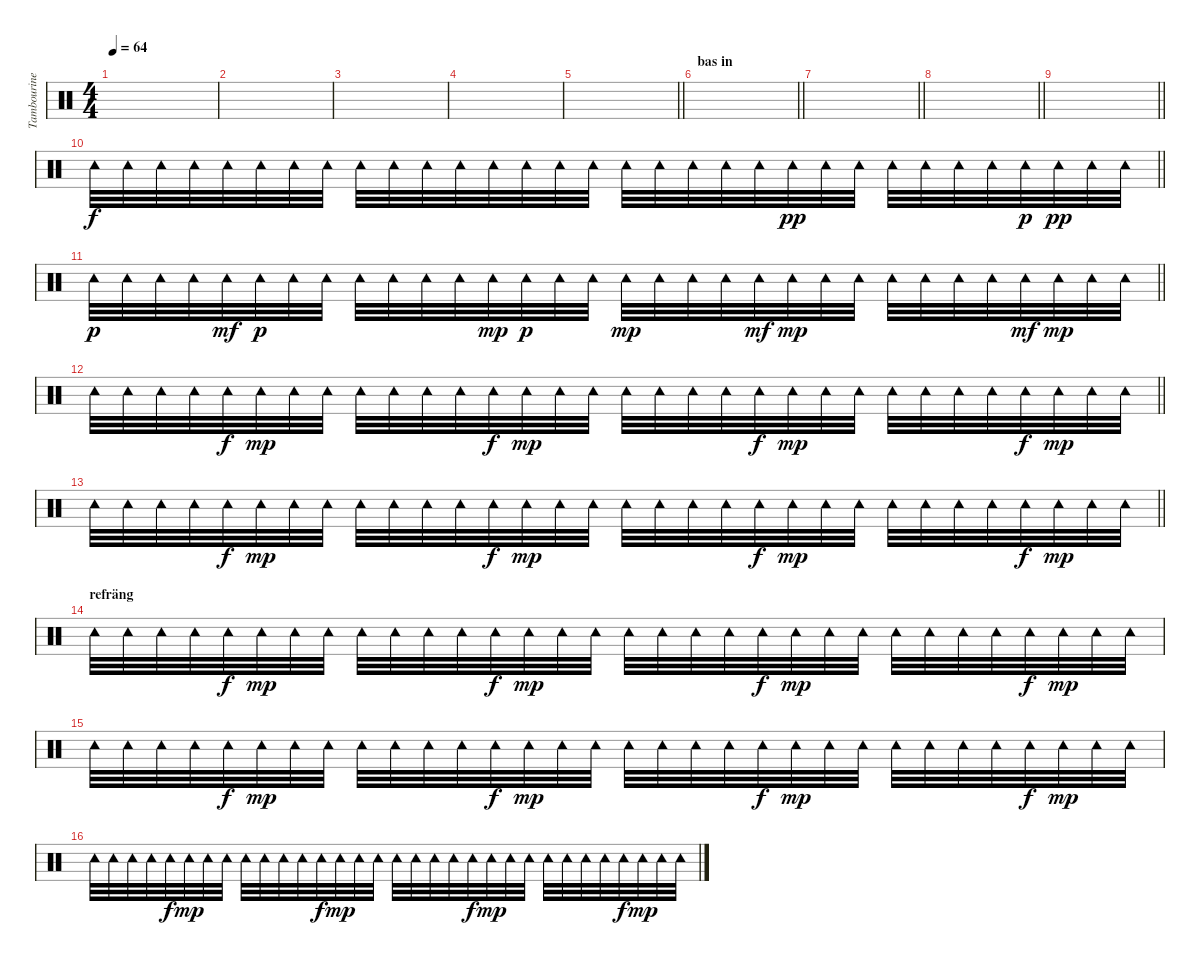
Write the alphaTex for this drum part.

\track ("Tambourine" "Tambourine") {instrument percussion}
\staff {score}
\articulation defaults
\ts (4 4)
\tempo 64
\clef neutral
\ks c
|
|
|
|
\barLineRight lightlight
|
\section ("" "bas in")
\barLineRight lightlight
|
\barLineRight lightlight
|
\barLineRight lightlight
|
\barLineRight lightlight
|
\barLineRight lightlight "Tambourine (hit)".32 "Tambourine (hit)".32 "Tambourine (hit)".32 "Tambourine (hit)".32 "Tambourine (hit)".32 "Tambourine (hit)".32 "Tambourine (hit)".32 "Tambourine (hit)".32 "Tambourine (hit)".32 "Tambourine (hit)".32 "Tambourine (hit)".32 "Tambourine (hit)".32 "Tambourine (hit)".32 "Tambourine (hit)".32 "Tambourine (hit)".32 "Tambourine (hit)".32 "Tambourine (hit)".32 "Tambourine (hit)".32 "Tambourine (hit)".32 "Tambourine (hit)".32 "Tambourine (hit)".32{dy f} "Tambourine (hit)".32{dy pp} "Tambourine (hit)".32 "Tambourine (hit)".32 "Tambourine (hit)".32 "Tambourine (hit)".32 "Tambourine (hit)".32 "Tambourine (hit)".32 "Tambourine (hit)".32{dy p} "Tambourine (hit)".32{dy pp} "Tambourine (hit)".32 "Tambourine (hit)".32
|
\barLineRight lightlight "Tambourine (hit)".32{dy p} "Tambourine (hit)".32 "Tambourine (hit)".32 "Tambourine (hit)".32 "Tambourine (hit)".32{dy mf} "Tambourine (hit)".32{dy p} "Tambourine (hit)".32 "Tambourine (hit)".32 "Tambourine (hit)".32 "Tambourine (hit)".32 "Tambourine (hit)".32 "Tambourine (hit)".32 "Tambourine (hit)".32{dy mp} "Tambourine (hit)".32{dy p} "Tambourine (hit)".32 "Tambourine (hit)".32 "Tambourine (hit)".32{dy mp} "Tambourine (hit)".32 "Tambourine (hit)".32 "Tambourine (hit)".32 "Tambourine (hit)".32{dy mf} "Tambourine (hit)".32{dy mp} "Tambourine (hit)".32 "Tambourine (hit)".32 "Tambourine (hit)".32 "Tambourine (hit)".32 "Tambourine (hit)".32 "Tambourine (hit)".32 "Tambourine (hit)".32{dy mf} "Tambourine (hit)".32{dy mp} "Tambourine (hit)".32 "Tambourine (hit)".32
|
\barLineRight lightlight "Tambourine (hit)".32 "Tambourine (hit)".32 "Tambourine (hit)".32 "Tambourine (hit)".32 "Tambourine (hit)".32{dy f} "Tambourine (hit)".32{dy mp} "Tambourine (hit)".32 "Tambourine (hit)".32 "Tambourine (hit)".32 "Tambourine (hit)".32 "Tambourine (hit)".32 "Tambourine (hit)".32 "Tambourine (hit)".32{dy f} "Tambourine (hit)".32{dy mp} "Tambourine (hit)".32 "Tambourine (hit)".32 "Tambourine (hit)".32 "Tambourine (hit)".32 "Tambourine (hit)".32 "Tambourine (hit)".32 "Tambourine (hit)".32{dy f} "Tambourine (hit)".32{dy mp} "Tambourine (hit)".32 "Tambourine (hit)".32 "Tambourine (hit)".32 "Tambourine (hit)".32 "Tambourine (hit)".32 "Tambourine (hit)".32 "Tambourine (hit)".32{dy f} "Tambourine (hit)".32{dy mp} "Tambourine (hit)".32 "Tambourine (hit)".32
|
\barLineRight lightlight "Tambourine (hit)".32 "Tambourine (hit)".32 "Tambourine (hit)".32 "Tambourine (hit)".32 "Tambourine (hit)".32{dy f} "Tambourine (hit)".32{dy mp} "Tambourine (hit)".32 "Tambourine (hit)".32 "Tambourine (hit)".32 "Tambourine (hit)".32 "Tambourine (hit)".32 "Tambourine (hit)".32 "Tambourine (hit)".32{dy f} "Tambourine (hit)".32{dy mp} "Tambourine (hit)".32 "Tambourine (hit)".32 "Tambourine (hit)".32 "Tambourine (hit)".32 "Tambourine (hit)".32 "Tambourine (hit)".32 "Tambourine (hit)".32{dy f} "Tambourine (hit)".32{dy mp} "Tambourine (hit)".32 "Tambourine (hit)".32 "Tambourine (hit)".32 "Tambourine (hit)".32 "Tambourine (hit)".32 "Tambourine (hit)".32 "Tambourine (hit)".32{dy f} "Tambourine (hit)".32{dy mp} "Tambourine (hit)".32 "Tambourine (hit)".32
|
\section ("" "refräng")
"Tambourine (hit)".32 "Tambourine (hit)".32 "Tambourine (hit)".32 "Tambourine (hit)".32 "Tambourine (hit)".32{dy f} "Tambourine (hit)".32{dy mp} "Tambourine (hit)".32 "Tambourine (hit)".32 "Tambourine (hit)".32 "Tambourine (hit)".32 "Tambourine (hit)".32 "Tambourine (hit)".32 "Tambourine (hit)".32{dy f} "Tambourine (hit)".32{dy mp} "Tambourine (hit)".32 "Tambourine (hit)".32 "Tambourine (hit)".32 "Tambourine (hit)".32 "Tambourine (hit)".32 "Tambourine (hit)".32 "Tambourine (hit)".32{dy f} "Tambourine (hit)".32{dy mp} "Tambourine (hit)".32 "Tambourine (hit)".32 "Tambourine (hit)".32 "Tambourine (hit)".32 "Tambourine (hit)".32 "Tambourine (hit)".32 "Tambourine (hit)".32{dy f} "Tambourine (hit)".32{dy mp} "Tambourine (hit)".32 "Tambourine (hit)".32 |
"Tambourine (hit)".32 "Tambourine (hit)".32 "Tambourine (hit)".32 "Tambourine (hit)".32 "Tambourine (hit)".32{dy f} "Tambourine (hit)".32{dy mp} "Tambourine (hit)".32 "Tambourine (hit)".32 "Tambourine (hit)".32 "Tambourine (hit)".32 "Tambourine (hit)".32 "Tambourine (hit)".32 "Tambourine (hit)".32{dy f} "Tambourine (hit)".32{dy mp} "Tambourine (hit)".32 "Tambourine (hit)".32 "Tambourine (hit)".32 "Tambourine (hit)".32 "Tambourine (hit)".32 "Tambourine (hit)".32 "Tambourine (hit)".32{dy f} "Tambourine (hit)".32{dy mp} "Tambourine (hit)".32 "Tambourine (hit)".32 "Tambourine (hit)".32 "Tambourine (hit)".32 "Tambourine (hit)".32 "Tambourine (hit)".32 "Tambourine (hit)".32{dy f} "Tambourine (hit)".32{dy mp} "Tambourine (hit)".32 "Tambourine (hit)".32 |
"Tambourine (hit)".32 "Tambourine (hit)".32 "Tambourine (hit)".32 "Tambourine (hit)".32 "Tambourine (hit)".32{dy f} "Tambourine (hit)".32{dy mp} "Tambourine (hit)".32 "Tambourine (hit)".32 "Tambourine (hit)".32 "Tambourine (hit)".32 "Tambourine (hit)".32 "Tambourine (hit)".32 "Tambourine (hit)".32{dy f} "Tambourine (hit)".32{dy mp} "Tambourine (hit)".32 "Tambourine (hit)".32 "Tambourine (hit)".32 "Tambourine (hit)".32 "Tambourine (hit)".32 "Tambourine (hit)".32 "Tambourine (hit)".32{dy f} "Tambourine (hit)".32{dy mp} "Tambourine (hit)".32 "Tambourine (hit)".32 "Tambourine (hit)".32 "Tambourine (hit)".32 "Tambourine (hit)".32 "Tambourine (hit)".32 "Tambourine (hit)".32{dy f} "Tambourine (hit)".32{dy mp} "Tambourine (hit)".32 "Tambourine (hit)".32
